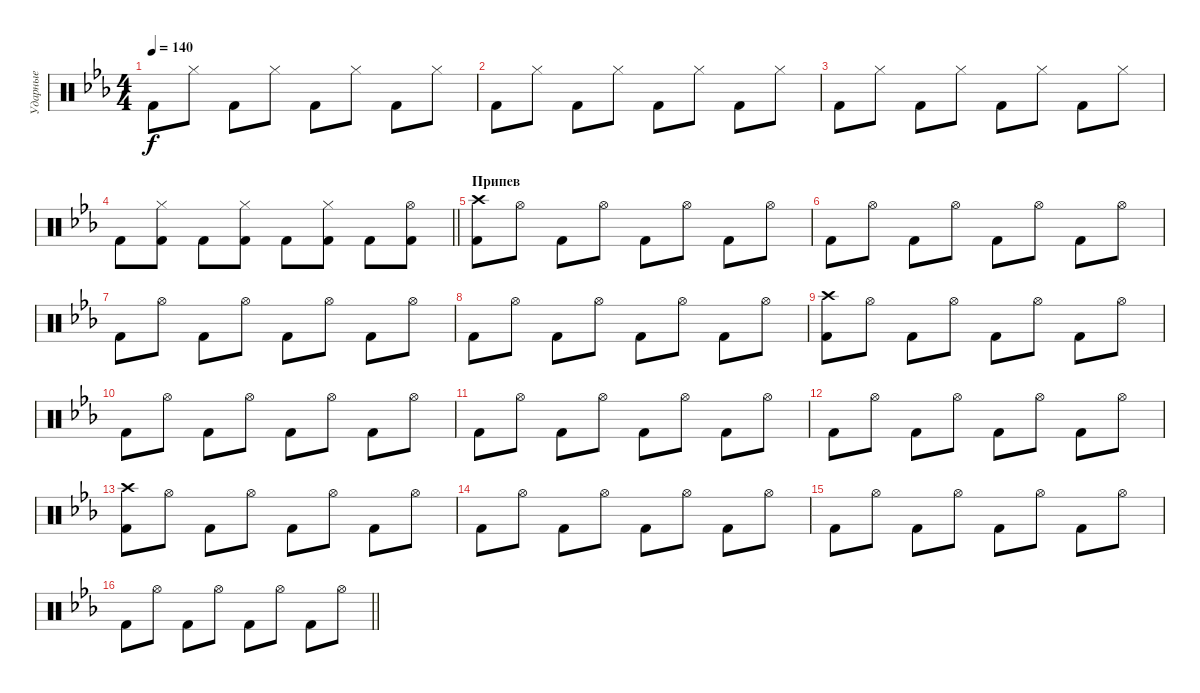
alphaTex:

\track ("Ударные" "Ударные") {instrument percussion}
\staff {score}
\articulation defaults
\ts (4 4)
\tempo 140
\clef neutral
\ks cminor "Kick (hit) 2".8{dy f} "Hi-Hat (closed)".8 "Kick (hit) 2".8 "Hi-Hat (closed)".8 "Kick (hit) 2".8 "Hi-Hat (closed)".8 "Kick (hit) 2".8 "Hi-Hat (closed)".8
|
"Kick (hit) 2".8 "Hi-Hat (closed)".8 "Kick (hit) 2".8 "Hi-Hat (closed)".8 "Kick (hit) 2".8 "Hi-Hat (closed)".8 "Kick (hit) 2".8 "Hi-Hat (closed)".8 |
"Kick (hit) 2".8 "Hi-Hat (closed)".8 "Kick (hit) 2".8 "Hi-Hat (closed)".8 "Kick (hit) 2".8 "Hi-Hat (closed)".8 "Kick (hit) 2".8 "Hi-Hat (closed)".8 |
\barLineRight lightlight "Kick (hit) 2".8
("Hi-Hat (closed)" "Kick (hit) 2").8 "Kick (hit) 2".8 ("Hi-Hat (closed)" "Kick (hit) 2").8 "Kick (hit) 2".8 ("Hi-Hat (closed)" "Kick (hit) 2").8 "Kick (hit) 2".8 ("Hi-Hat (open)" "Kick (hit) 2").8 |
\section ("" "Припев")
("Kick (hit) 2" "Crash high (hit)").8 "Hi-Hat (open)".8 "Kick (hit) 2".8 "Hi-Hat (open)".8 "Kick (hit) 2".8 "Hi-Hat (open)".8 "Kick (hit) 2".8 "Hi-Hat (open)".8 |
"Kick (hit) 2".8 "Hi-Hat (open)".8 "Kick (hit) 2".8 "Hi-Hat (open)".8 "Kick (hit) 2".8 "Hi-Hat (open)".8 "Kick (hit) 2".8 "Hi-Hat (open)".8 |
"Kick (hit) 2".8 "Hi-Hat (open)".8 "Kick (hit) 2".8 "Hi-Hat (open)".8 "Kick (hit) 2".8 "Hi-Hat (open)".8 "Kick (hit) 2".8 "Hi-Hat (open)".8 |
"Kick (hit) 2".8 "Hi-Hat (open)".8 "Kick (hit) 2".8 "Hi-Hat (open)".8 "Kick (hit) 2".8 "Hi-Hat (open)".8 "Kick (hit) 2".8 "Hi-Hat (open)".8 |
("Kick (hit) 2" "Crash high (hit)").8 "Hi-Hat (open)".8 "Kick (hit) 2".8 "Hi-Hat (open)".8 "Kick (hit) 2".8 "Hi-Hat (open)".8 "Kick (hit) 2".8 "Hi-Hat (open)".8 |
"Kick (hit) 2".8 "Hi-Hat (open)".8 "Kick (hit) 2".8 "Hi-Hat (open)".8 "Kick (hit) 2".8 "Hi-Hat (open)".8 "Kick (hit) 2".8 "Hi-Hat (open)".8 |
"Kick (hit) 2".8 "Hi-Hat (open)".8 "Kick (hit) 2".8 "Hi-Hat (open)".8 "Kick (hit) 2".8 "Hi-Hat (open)".8 "Kick (hit) 2".8 "Hi-Hat (open)".8 |
"Kick (hit) 2".8 "Hi-Hat (open)".8 "Kick (hit) 2".8 "Hi-Hat (open)".8 "Kick (hit) 2".8 "Hi-Hat (open)".8 "Kick (hit) 2".8 "Hi-Hat (open)".8 |
("Kick (hit) 2" "Crash high (hit)").8 "Hi-Hat (open)".8 "Kick (hit) 2".8 "Hi-Hat (open)".8 "Kick (hit) 2".8 "Hi-Hat (open)".8 "Kick (hit) 2".8 "Hi-Hat (open)".8 |
"Kick (hit) 2".8 "Hi-Hat (open)".8 "Kick (hit) 2".8 "Hi-Hat (open)".8 "Kick (hit) 2".8 "Hi-Hat (open)".8 "Kick (hit) 2".8 "Hi-Hat (open)".8 |
"Kick (hit) 2".8 "Hi-Hat (open)".8 "Kick (hit) 2".8 "Hi-Hat (open)".8 "Kick (hit) 2".8 "Hi-Hat (open)".8 "Kick (hit) 2".8 "Hi-Hat (open)".8 |
\barLineRight lightlight "Kick (hit) 2".8 "Hi-Hat (open)".8 "Kick (hit) 2".8 "Hi-Hat (open)".8 "Kick (hit) 2".8 "Hi-Hat (open)".8 "Kick (hit) 2".8 "Hi-Hat (open)".8
